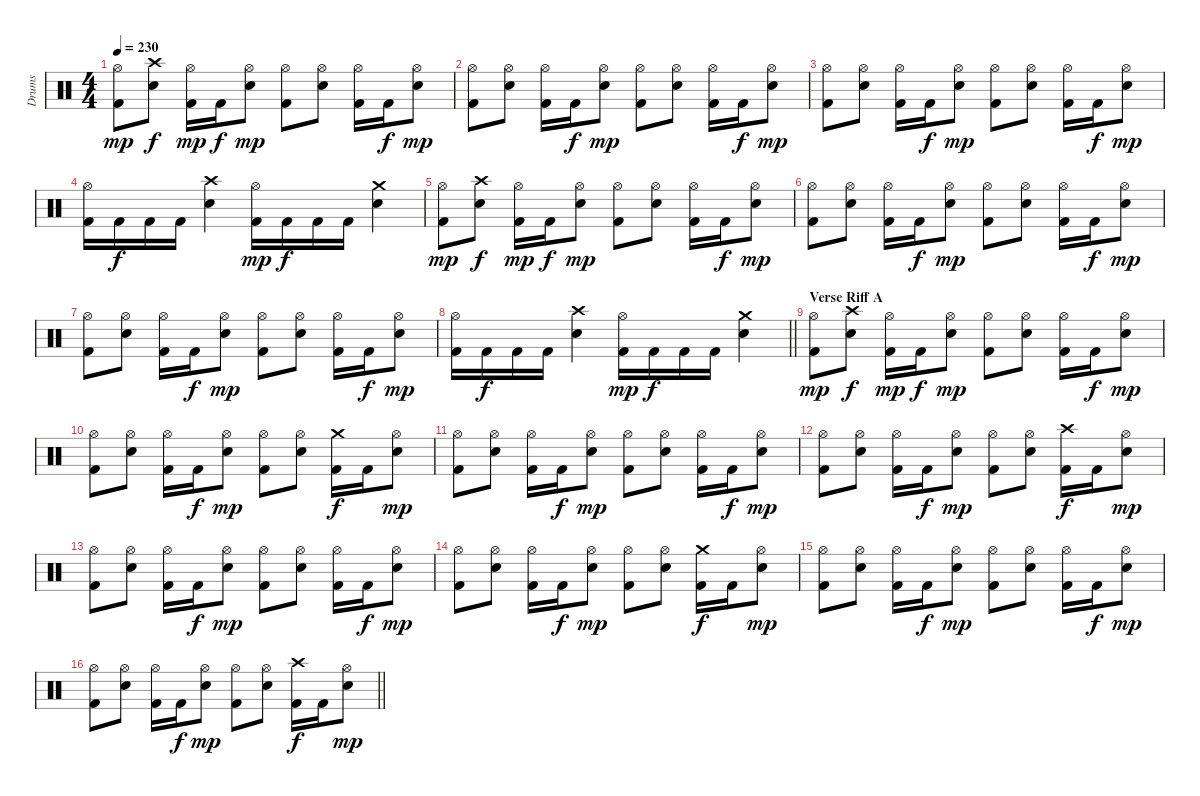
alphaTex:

\track ("Drums" "Drums") {instrument percussion}
\staff {score}
\articulation defaults
\ts (4 4)
\tempo 230
\clef neutral
\ks c
("Hi-Hat (open)" "Kick (hit) 2").8{dy mp} ("Crash high (hit)" "Snare (hit) 2").8{dy f} ("Hi-Hat (open)" "Kick (hit) 2").16{dy mp} "Kick (hit) 2".16{dy f} ("Hi-Hat (open)" "Snare (hit) 2").8{dy mp} ("Hi-Hat (open)" "Kick (hit) 2").8 ("Hi-Hat (open)" "Snare (hit) 2").8 ("Hi-Hat (open)" "Kick (hit) 2").16 "Kick (hit) 2".16{dy f} ("Hi-Hat (open)" "Snare (hit) 2").8{dy mp} |
("Hi-Hat (open)" "Kick (hit) 2").8 ("Hi-Hat (open)" "Snare (hit) 2").8 ("Hi-Hat (open)" "Kick (hit) 2").16 "Kick (hit) 2".16{dy f} ("Hi-Hat (open)" "Snare (hit) 2").8{dy mp} ("Hi-Hat (open)" "Kick (hit) 2").8 ("Hi-Hat (open)" "Snare (hit) 2").8 ("Hi-Hat (open)" "Kick (hit) 2").16 "Kick (hit) 2".16{dy f} ("Hi-Hat (open)" "Snare (hit) 2").8{dy mp} |
("Hi-Hat (open)" "Kick (hit) 2").8 ("Hi-Hat (open)" "Snare (hit) 2").8 ("Hi-Hat (open)" "Kick (hit) 2").16 "Kick (hit) 2".16{dy f} ("Hi-Hat (open)" "Snare (hit) 2").8{dy mp} ("Hi-Hat (open)" "Kick (hit) 2").8 ("Hi-Hat (open)" "Snare (hit) 2").8 ("Hi-Hat (open)" "Kick (hit) 2").16 "Kick (hit) 2".16{dy f} ("Hi-Hat (open)" "Snare (hit) 2").8{dy mp} |
("Hi-Hat (open)" "Kick (hit) 2").16 "Kick (hit) 2".16{dy f} "Kick (hit) 2".16 "Kick (hit) 2".16 ("Crash high (hit)" "Snare (hit) 2").4 ("Hi-Hat (open)" "Kick (hit) 2").16{dy mp} "Kick (hit) 2".16{dy f} "Kick (hit) 2".16 "Kick (hit) 2".16 ("Crash medium (hit)" "Snare (hit) 2").4 |
("Hi-Hat (open)" "Kick (hit) 2").8{dy mp} ("Crash high (hit)" "Snare (hit) 2").8{dy f} ("Hi-Hat (open)" "Kick (hit) 2").16{dy mp} "Kick (hit) 2".16{dy f} ("Hi-Hat (open)" "Snare (hit) 2").8{dy mp} ("Hi-Hat (open)" "Kick (hit) 2").8 ("Hi-Hat (open)" "Snare (hit) 2").8 ("Hi-Hat (open)" "Kick (hit) 2").16 "Kick (hit) 2".16{dy f} ("Hi-Hat (open)" "Snare (hit) 2").8{dy mp} |
("Hi-Hat (open)" "Kick (hit) 2").8 ("Hi-Hat (open)" "Snare (hit) 2").8 ("Hi-Hat (open)" "Kick (hit) 2").16 "Kick (hit) 2".16{dy f} ("Hi-Hat (open)" "Snare (hit) 2").8{dy mp} ("Hi-Hat (open)" "Kick (hit) 2").8 ("Hi-Hat (open)" "Snare (hit) 2").8 ("Hi-Hat (open)" "Kick (hit) 2").16 "Kick (hit) 2".16{dy f} ("Hi-Hat (open)" "Snare (hit) 2").8{dy mp} |
("Hi-Hat (open)" "Kick (hit) 2").8 ("Hi-Hat (open)" "Snare (hit) 2").8 ("Hi-Hat (open)" "Kick (hit) 2").16 "Kick (hit) 2".16{dy f} ("Hi-Hat (open)" "Snare (hit) 2").8{dy mp} ("Hi-Hat (open)" "Kick (hit) 2").8 ("Hi-Hat (open)" "Snare (hit) 2").8 ("Hi-Hat (open)" "Kick (hit) 2").16 "Kick (hit) 2".16{dy f} ("Hi-Hat (open)" "Snare (hit) 2").8{dy mp} |
\barLineRight lightlight
("Hi-Hat (open)" "Kick (hit) 2").16 "Kick (hit) 2".16{dy f} "Kick (hit) 2".16 "Kick (hit) 2".16 ("Crash high (hit)" "Snare (hit) 2").4 ("Hi-Hat (open)" "Kick (hit) 2").16{dy mp} "Kick (hit) 2".16{dy f} "Kick (hit) 2".16 "Kick (hit) 2".16 ("Crash medium (hit)" "Snare (hit) 2").4 |
\section ("" "Verse Riff A")
("Hi-Hat (open)" "Kick (hit) 2").8{dy mp} ("Crash high (hit)" "Snare (hit) 2").8{dy f} ("Hi-Hat (open)" "Kick (hit) 2").16{dy mp} "Kick (hit) 2".16{dy f} ("Hi-Hat (open)" "Snare (hit) 2").8{dy mp} ("Hi-Hat (open)" "Kick (hit) 2").8 ("Hi-Hat (open)" "Snare (hit) 2").8 ("Hi-Hat (open)" "Kick (hit) 2").16 "Kick (hit) 2".16{dy f} ("Hi-Hat (open)" "Snare (hit) 2").8{dy mp} |
("Hi-Hat (open)" "Kick (hit) 2").8 ("Hi-Hat (open)" "Snare (hit) 2").8 ("Hi-Hat (open)" "Kick (hit) 2").16 "Kick (hit) 2".16{dy f} ("Hi-Hat (open)" "Snare (hit) 2").8{dy mp} ("Hi-Hat (open)" "Kick (hit) 2").8 ("Hi-Hat (open)" "Snare (hit) 2").8 ("Crash medium (hit)" "Kick (hit) 2").16{dy f} "Kick (hit) 2".16 ("Hi-Hat (open)" "Snare (hit) 2").8{dy mp} |
("Hi-Hat (open)" "Kick (hit) 2").8 ("Hi-Hat (open)" "Snare (hit) 2").8 ("Hi-Hat (open)" "Kick (hit) 2").16 "Kick (hit) 2".16{dy f} ("Hi-Hat (open)" "Snare (hit) 2").8{dy mp} ("Hi-Hat (open)" "Kick (hit) 2").8 ("Hi-Hat (open)" "Snare (hit) 2").8 ("Hi-Hat (open)" "Kick (hit) 2").16 "Kick (hit) 2".16{dy f} ("Hi-Hat (open)" "Snare (hit) 2").8{dy mp} |
("Hi-Hat (open)" "Kick (hit) 2").8 ("Hi-Hat (open)" "Snare (hit) 2").8 ("Hi-Hat (open)" "Kick (hit) 2").16 "Kick (hit) 2".16{dy f} ("Hi-Hat (open)" "Snare (hit) 2").8{dy mp} ("Hi-Hat (open)" "Kick (hit) 2").8 ("Hi-Hat (open)" "Snare (hit) 2").8 ("Crash high (hit)" "Kick (hit) 2").16{dy f} "Kick (hit) 2".16 ("Hi-Hat (open)" "Snare (hit) 2").8{dy mp} |
("Hi-Hat (open)" "Kick (hit) 2").8 ("Hi-Hat (open)" "Snare (hit) 2").8 ("Hi-Hat (open)" "Kick (hit) 2").16 "Kick (hit) 2".16{dy f} ("Hi-Hat (open)" "Snare (hit) 2").8{dy mp} ("Hi-Hat (open)" "Kick (hit) 2").8 ("Hi-Hat (open)" "Snare (hit) 2").8 ("Hi-Hat (open)" "Kick (hit) 2").16 "Kick (hit) 2".16{dy f} ("Hi-Hat (open)" "Snare (hit) 2").8{dy mp} |
("Hi-Hat (open)" "Kick (hit) 2").8 ("Hi-Hat (open)" "Snare (hit) 2").8 ("Hi-Hat (open)" "Kick (hit) 2").16 "Kick (hit) 2".16{dy f} ("Hi-Hat (open)" "Snare (hit) 2").8{dy mp} ("Hi-Hat (open)" "Kick (hit) 2").8 ("Hi-Hat (open)" "Snare (hit) 2").8 ("Crash medium (hit)" "Kick (hit) 2").16{dy f} "Kick (hit) 2".16 ("Hi-Hat (open)" "Snare (hit) 2").8{dy mp} |
("Hi-Hat (open)" "Kick (hit) 2").8 ("Hi-Hat (open)" "Snare (hit) 2").8 ("Hi-Hat (open)" "Kick (hit) 2").16 "Kick (hit) 2".16{dy f} ("Hi-Hat (open)" "Snare (hit) 2").8{dy mp} ("Hi-Hat (open)" "Kick (hit) 2").8 ("Hi-Hat (open)" "Snare (hit) 2").8 ("Hi-Hat (open)" "Kick (hit) 2").16 "Kick (hit) 2".16{dy f} ("Hi-Hat (open)" "Snare (hit) 2").8{dy mp} |
\barLineRight lightlight
("Hi-Hat (open)" "Kick (hit) 2").8 ("Hi-Hat (open)" "Snare (hit) 2").8 ("Hi-Hat (open)" "Kick (hit) 2").16 "Kick (hit) 2".16{dy f} ("Hi-Hat (open)" "Snare (hit) 2").8{dy mp} ("Hi-Hat (open)" "Kick (hit) 2").8 ("Hi-Hat (open)" "Snare (hit) 2").8 ("Crash high (hit)" "Kick (hit) 2").16{dy f} "Kick (hit) 2".16 ("Hi-Hat (open)" "Snare (hit) 2").8{dy mp}
